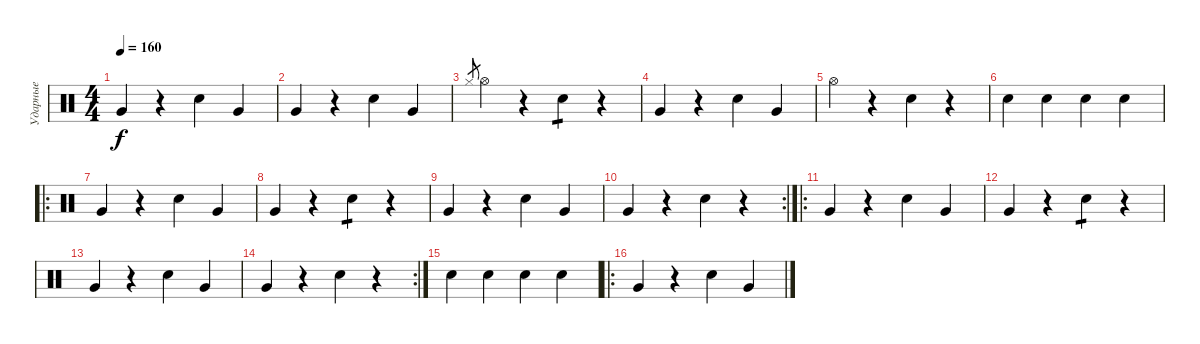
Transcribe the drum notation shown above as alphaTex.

\track ("Ударные" "Ударные") {instrument percussion}
\staff {score}
\articulation defaults
\ts (4 4)
\tempo 160
\clef neutral
\ks c "Very Low Tom (hit)".4{dy f}
r.4 "Hand Clap (hit)".4 "Very Low Tom (hit)".4 |
"Very Low Tom (hit)".4 r.4 "Hand Clap (hit)".4 "Very Low Tom (hit)".4 |
"Hi-Hat (closed)".8{gr} "Hi-Hat (open)".4 r.4 "Hand Clap (hit)".4{tp 1} r.4 |
"Very Low Tom (hit)".4 r.4 "Hand Clap (hit)".4 "Very Low Tom (hit)".4 |
"Hi-Hat (open)".4 r.4 "Hand Clap (hit)".4 r.4 |
"Electric Snare (hit)".4 "Electric Snare (hit)".4 "Electric Snare (hit)".4 "Electric Snare (hit)".4 |
\ro "Very Low Tom (hit)".4
r.4 "Hand Clap (hit)".4 "Very Low Tom (hit)".4 |
"Very Low Tom (hit)".4 r.4 "Hand Clap (hit)".4{tp 1} r.4 |
"Very Low Tom (hit)".4 r.4 "Hand Clap (hit)".4 "Very Low Tom (hit)".4 |
\rc 2 "Very Low Tom (hit)".4
r.4 "Hand Clap (hit)".4 r.4 |
\ro "Very Low Tom (hit)".4
r.4 "Hand Clap (hit)".4 "Very Low Tom (hit)".4 |
"Very Low Tom (hit)".4 r.4 "Hand Clap (hit)".4{tp 1} r.4 |
"Very Low Tom (hit)".4 r.4 "Hand Clap (hit)".4 "Very Low Tom (hit)".4 |
\rc 2 "Very Low Tom (hit)".4
r.4 "Hand Clap (hit)".4 r.4 |
"Electric Snare (hit)".4 "Electric Snare (hit)".4 "Electric Snare (hit)".4 "Electric Snare (hit)".4 |
\ro "Very Low Tom (hit)".4
r.4 "Hand Clap (hit)".4 "Very Low Tom (hit)".4
